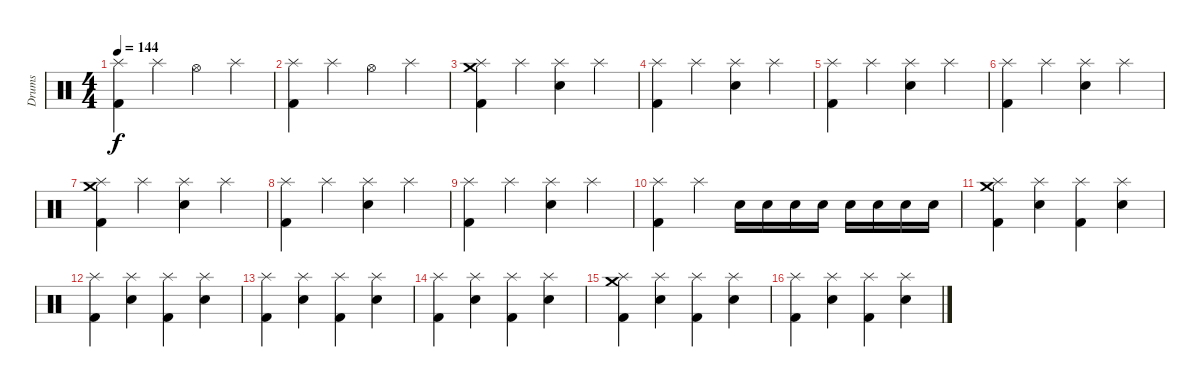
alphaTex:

\track ("Drums" "Drums") {instrument percussion}
\staff {score}
\articulation defaults
\ts (4 4)
\tempo 144
\clef neutral
\ks c
("Splash (hit)" "Kick (hit) 2").4{dy f} "Splash (hit)".4 "Hi-Hat (open)".4 "Splash (hit)".4 |
("Splash (hit)" "Kick (hit) 2").4 "Splash (hit)".4 "Hi-Hat (open)".4 "Splash (hit)".4 |
("Splash (hit)" "Crash medium (hit)" "Kick (hit) 2").4 "Splash (hit)".4 ("Splash (hit)" "Snare (hit) 2").4 "Splash (hit)".4 |
("Splash (hit)" "Kick (hit) 2").4 "Splash (hit)".4 ("Splash (hit)" "Snare (hit) 2").4 "Splash (hit)".4 |
("Splash (hit)" "Kick (hit) 2").4 "Splash (hit)".4 ("Splash (hit)" "Snare (hit) 2").4 "Splash (hit)".4 |
("Splash (hit)" "Kick (hit) 2").4 "Splash (hit)".4 ("Splash (hit)" "Snare (hit) 2").4 "Splash (hit)".4 |
("Splash (hit)" "Crash medium (hit)" "Kick (hit) 2").4 "Splash (hit)".4 ("Splash (hit)" "Snare (hit) 2").4 "Splash (hit)".4 |
("Splash (hit)" "Kick (hit) 2").4 "Splash (hit)".4 ("Splash (hit)" "Snare (hit) 2").4 "Splash (hit)".4 |
("Splash (hit)" "Kick (hit) 2").4 "Splash (hit)".4 ("Splash (hit)" "Snare (hit) 2").4 "Splash (hit)".4 |
("Splash (hit)" "Kick (hit) 2").4 "Splash (hit)".4 "Snare (hit) 2".16 "Snare (hit) 2".16 "Snare (hit) 2".16 "Snare (hit) 2".16 "Snare (hit) 2".16 "Snare (hit) 2".16 "Snare (hit) 2".16 "Snare (hit) 2".16 |
("Splash (hit)" "Crash medium (hit)" "Kick (hit) 2").4 ("Splash (hit)" "Snare (hit) 2").4 ("Splash (hit)" "Kick (hit) 2").4 ("Splash (hit)" "Snare (hit) 2").4 |
("Splash (hit)" "Kick (hit) 2").4 ("Splash (hit)" "Snare (hit) 2").4 ("Splash (hit)" "Kick (hit) 2").4 ("Splash (hit)" "Snare (hit) 2").4 |
("Splash (hit)" "Kick (hit) 2").4 ("Splash (hit)" "Snare (hit) 2").4 ("Splash (hit)" "Kick (hit) 2").4 ("Splash (hit)" "Snare (hit) 2").4 |
("Splash (hit)" "Kick (hit) 2").4 ("Splash (hit)" "Snare (hit) 2").4 ("Splash (hit)" "Kick (hit) 2").4 ("Splash (hit)" "Snare (hit) 2").4 |
("Splash (hit)" "Crash medium (hit)" "Kick (hit) 2").4 ("Splash (hit)" "Snare (hit) 2").4 ("Splash (hit)" "Kick (hit) 2").4 ("Splash (hit)" "Snare (hit) 2").4 |
("Splash (hit)" "Kick (hit) 2").4 ("Splash (hit)" "Snare (hit) 2").4 ("Splash (hit)" "Kick (hit) 2").4 ("Splash (hit)" "Snare (hit) 2").4
